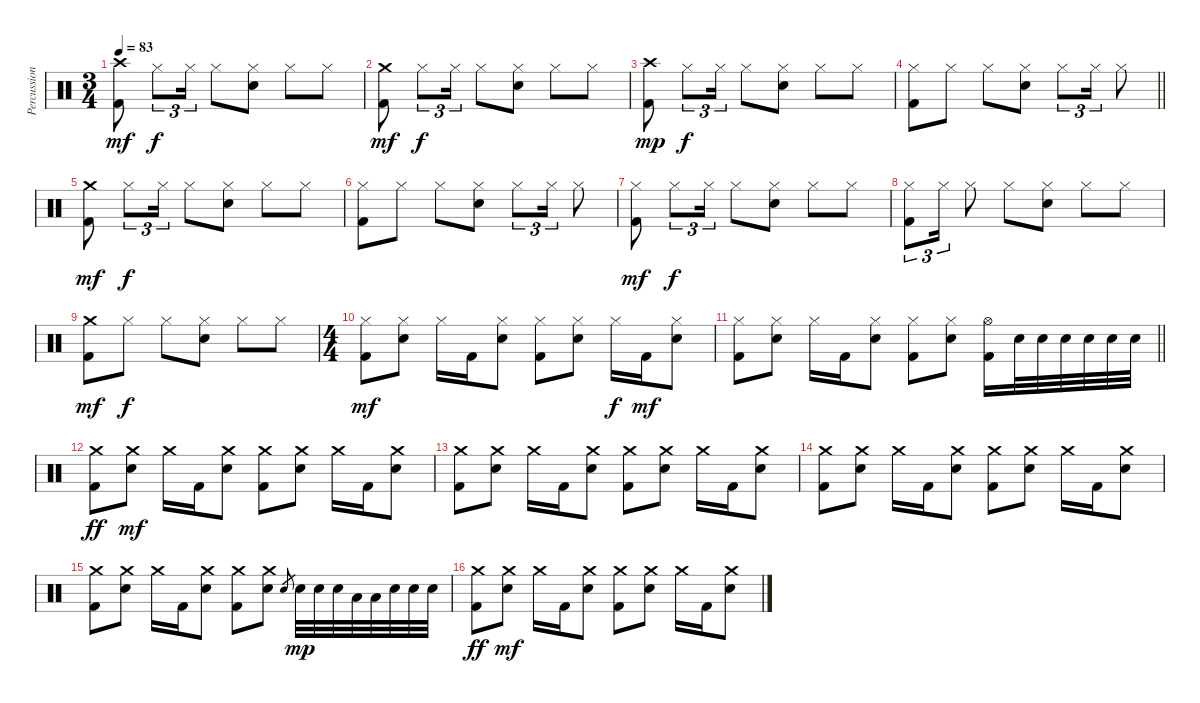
\track ("Percussions" "Percussion") {instrument percussion}
\staff {score}
\articulation defaults
\ts (3 4)
\tempo 83
\clef neutral
\ks c
("Kick (hit) 2" "Crash high (hit)").8{dy mf} "Hi-Hat (closed)".8{tu (3 2) dy f} "Hi-Hat (closed)".16{tu (3 2)} "Hi-Hat (closed)".8 ("Electric Snare (hit)" "Hi-Hat (closed)").8 "Hi-Hat (closed)".8 "Hi-Hat (closed)".8 |
("Kick (hit) 2" "Crash medium (hit)").8{dy mf} "Hi-Hat (closed)".8{tu (3 2) dy f} "Hi-Hat (closed)".16{tu (3 2)} "Hi-Hat (closed)".8 ("Electric Snare (hit)" "Hi-Hat (closed)").8 "Hi-Hat (closed)".8 "Hi-Hat (closed)".8 |
("Kick (hit) 2" "Crash high (hit)").8{dy mp} "Hi-Hat (closed)".8{tu (3 2) dy f} "Hi-Hat (closed)".16{tu (3 2)} "Hi-Hat (closed)".8 ("Electric Snare (hit)" "Hi-Hat (closed)").8 "Hi-Hat (closed)".8 "Hi-Hat (closed)".8 |
\barLineRight lightlight
("Kick (hit) 2" "Hi-Hat (closed)").8 "Hi-Hat (closed)".8 "Hi-Hat (closed)".8 ("Electric Snare (hit)" "Hi-Hat (closed)").8 "Hi-Hat (closed)".8{tu (3 2)} "Hi-Hat (closed)".16{tu (3 2)} "Hi-Hat (closed)".8 |
\section ("" "")
("Kick (hit) 2" "Crash medium (hit)").8{dy mf} "Hi-Hat (closed)".8{tu (3 2) dy f} "Hi-Hat (closed)".16{tu (3 2)} "Hi-Hat (closed)".8 ("Electric Snare (hit)" "Hi-Hat (closed)").8 "Hi-Hat (closed)".8 "Hi-Hat (closed)".8 |
("Kick (hit) 2" "Hi-Hat (closed)").8 "Hi-Hat (closed)".8 "Hi-Hat (closed)".8 ("Electric Snare (hit)" "Hi-Hat (closed)").8 "Hi-Hat (closed)".8{tu (3 2)} "Hi-Hat (closed)".16{tu (3 2)} "Hi-Hat (closed)".8 |
("Kick (hit) 2" "Hi-Hat (closed)").8{dy mf} "Hi-Hat (closed)".8{tu (3 2) dy f} "Hi-Hat (closed)".16{tu (3 2)} "Hi-Hat (closed)".8 ("Electric Snare (hit)" "Hi-Hat (closed)").8 "Hi-Hat (closed)".8 "Hi-Hat (closed)".8 |
("Kick (hit) 2" "Hi-Hat (closed)").8{tu (3 2)} "Hi-Hat (closed)".16{tu (3 2)} "Hi-Hat (closed)".8 "Hi-Hat (closed)".8 ("Electric Snare (hit)" "Hi-Hat (closed)").8 "Hi-Hat (closed)".8 "Hi-Hat (closed)".8 |
("Kick (hit) 2" "Crash medium (hit)").8{dy mf} "Hi-Hat (closed)".8{dy f} "Hi-Hat (closed)".8 ("Electric Snare (hit)" "Hi-Hat (closed)").8 "Hi-Hat (closed)".8 "Hi-Hat (closed)".8 |
\ts (4 4)
("Kick (hit) 2" "Hi-Hat (closed)").8{dy mf} ("Electric Snare (hit)" "Hi-Hat (closed)").8 "Hi-Hat (closed)".16 "Kick (hit) 2".16 ("Electric Snare (hit)" "Hi-Hat (closed)").8 ("Kick (hit) 2" "Hi-Hat (closed)").8 ("Electric Snare (hit)" "Hi-Hat (closed)").8 "Hi-Hat (closed)".16{dy f} "Kick (hit) 2".16{dy mf} ("Electric Snare (hit)" "Hi-Hat (closed)").8 |
\barLineRight lightlight
("Kick (hit) 2" "Hi-Hat (closed)").8 ("Electric Snare (hit)" "Hi-Hat (closed)").8 "Hi-Hat (closed)".16 "Kick (hit) 2".16 ("Electric Snare (hit)" "Hi-Hat (closed)").8 ("Kick (hit) 2" "Hi-Hat (closed)").8 ("Electric Snare (hit)" "Hi-Hat (closed)").8 ("Kick (hit) 2" "Hi-Hat (open)").16 "Electric Snare (hit)".32 "Electric Snare (hit)".32 "Electric Snare (hit)".32 "Electric Snare (hit)".32 "Electric Snare (hit)".32 "Electric Snare (hit)".32 |
\section ("" "")
("Kick (hit) 2" "Crash medium (hit)").8{dy ff volume 12} ("Electric Snare (hit)" "Crash medium (hit)").8{dy mf} "Crash medium (hit)".16 "Kick (hit) 2".16 ("Electric Snare (hit)" "Crash medium (hit)").8 ("Kick (hit) 2" "Crash medium (hit)").8 ("Electric Snare (hit)" "Crash medium (hit)").8 "Crash medium (hit)".16 "Kick (hit) 2".16 ("Electric Snare (hit)" "Crash medium (hit)").8 |
("Kick (hit) 2" "Crash medium (hit)").8 ("Electric Snare (hit)" "Crash medium (hit)").8 "Crash medium (hit)".16 "Kick (hit) 2".16 ("Electric Snare (hit)" "Crash medium (hit)").8 ("Kick (hit) 2" "Crash medium (hit)").8 ("Electric Snare (hit)" "Crash medium (hit)").8 "Crash medium (hit)".16 "Kick (hit) 2".16 ("Electric Snare (hit)" "Crash medium (hit)").8 |
("Kick (hit) 2" "Crash medium (hit)").8 ("Electric Snare (hit)" "Crash medium (hit)").8 "Crash medium (hit)".16 "Kick (hit) 2".16 ("Electric Snare (hit)" "Crash medium (hit)").8 ("Kick (hit) 2" "Crash medium (hit)").8 ("Electric Snare (hit)" "Crash medium (hit)").8 "Crash medium (hit)".16 "Kick (hit) 2".16 ("Electric Snare (hit)" "Crash medium (hit)").8 |
("Kick (hit) 2" "Crash medium (hit)").8 ("Electric Snare (hit)" "Crash medium (hit)").8 "Crash medium (hit)".16 "Kick (hit) 2".16 ("Electric Snare (hit)" "Crash medium (hit)").8 ("Kick (hit) 2" "Crash medium (hit)").8 ("Electric Snare (hit)" "Crash medium (hit)").8 "Electric Snare (hit)".8{gr} "Electric Snare (hit)".32{dy mp} "Electric Snare (hit)".32 "Electric Snare (hit)".32 "Low Tom (hit)".32 "Low Tom (hit)".32 "Electric Snare (hit)".32 "Electric Snare (hit)".32 "Electric Snare (hit)".32 |
("Kick (hit) 2" "Crash medium (hit)").8{dy ff} ("Electric Snare (hit)" "Crash medium (hit)").8{dy mf} "Crash medium (hit)".16 "Kick (hit) 2".16 ("Electric Snare (hit)" "Crash medium (hit)").8 ("Kick (hit) 2" "Crash medium (hit)").8 ("Electric Snare (hit)" "Crash medium (hit)").8 "Crash medium (hit)".16 "Kick (hit) 2".16 ("Electric Snare (hit)" "Crash medium (hit)").8
